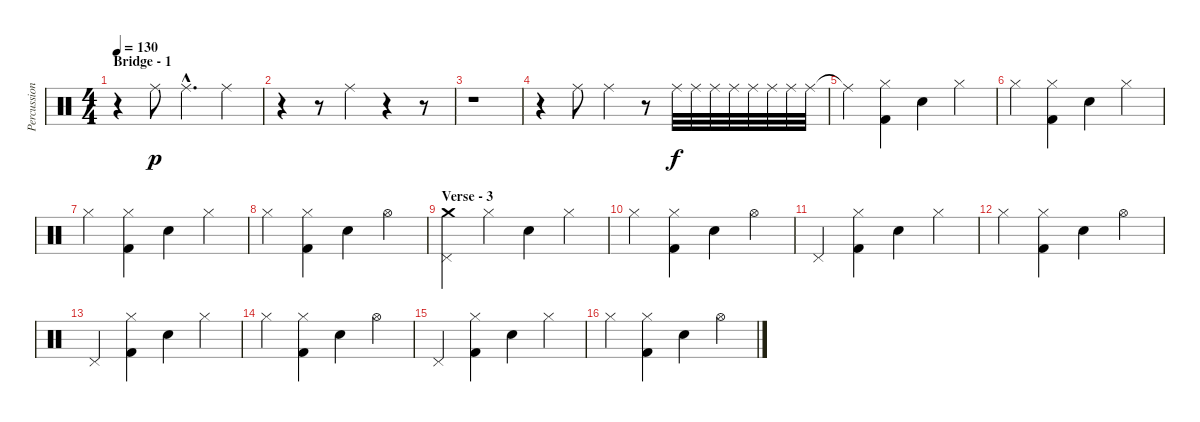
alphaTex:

\track ("Percussion" "Percussion") {instrument percussion}
\staff {score}
\articulation defaults
\ts (4 4)
\section ("" "Bridge - 1")
\tempo 130
\clef neutral
\ks c
r.4{dy pp} "Ride (middle)".8{dy p} "Ride (middle)"{hac}.4{d} "Ride (middle)".4 |
r.4 r.8 "Ride (middle)".4 r.4 r.8 |
r.1 |
r.4 "Ride (middle)".8 "Ride (middle)".4 r.8{volume 0} "Ride (middle)".32{dy f volume 16} "Ride (middle)".32 "Ride (middle)".32 "Ride (middle)".32 "Ride (middle)".32 "Ride (middle)".32 "Ride (middle)".32 "Ride (middle)".32 |
"Ride (middle)"{t}.4 ("Hi-Hat (closed)" "Kick (hit) 2").4 "Snare (hit) 2".4 "Hi-Hat (closed)".4 |
"Hi-Hat (closed)".4 ("Hi-Hat (closed)" "Kick (hit) 2").4 "Snare (hit) 2".4 "Hi-Hat (closed)".4 |
"Hi-Hat (closed)".4 ("Hi-Hat (closed)" "Kick (hit) 2").4 "Snare (hit) 2".4 "Hi-Hat (closed)".4 |
"Hi-Hat (closed)".4 ("Hi-Hat (closed)" "Kick (hit) 2").4 "Snare (hit) 2".4 "Hi-Hat (open)".4 |
\section ("" "Verse - 3")
("Crash medium (hit)" "Pedal Hi-Hat (hit)").4 "Hi-Hat (closed)".4 "Snare (hit) 2".4 "Hi-Hat (closed)".4 |
"Hi-Hat (closed)".4 ("Hi-Hat (closed)" "Kick (hit) 2").4 "Snare (hit) 2".4 "Hi-Hat (open)".4 |
"Pedal Hi-Hat (hit)".4 ("Hi-Hat (closed)" "Kick (hit) 2").4 "Snare (hit) 2".4 "Hi-Hat (closed)".4 |
"Hi-Hat (closed)".4 ("Hi-Hat (closed)" "Kick (hit) 2").4 "Snare (hit) 2".4 "Hi-Hat (open)".4 |
"Pedal Hi-Hat (hit)".4 ("Hi-Hat (closed)" "Kick (hit) 2").4 "Snare (hit) 2".4 "Hi-Hat (closed)".4 |
"Hi-Hat (closed)".4 ("Hi-Hat (closed)" "Kick (hit) 2").4 "Snare (hit) 2".4 "Hi-Hat (open)".4 |
"Pedal Hi-Hat (hit)".4 ("Hi-Hat (closed)" "Kick (hit) 2").4 "Snare (hit) 2".4 "Hi-Hat (closed)".4 |
"Hi-Hat (closed)".4 ("Hi-Hat (closed)" "Kick (hit) 2").4 "Snare (hit) 2".4 "Hi-Hat (open)".4
